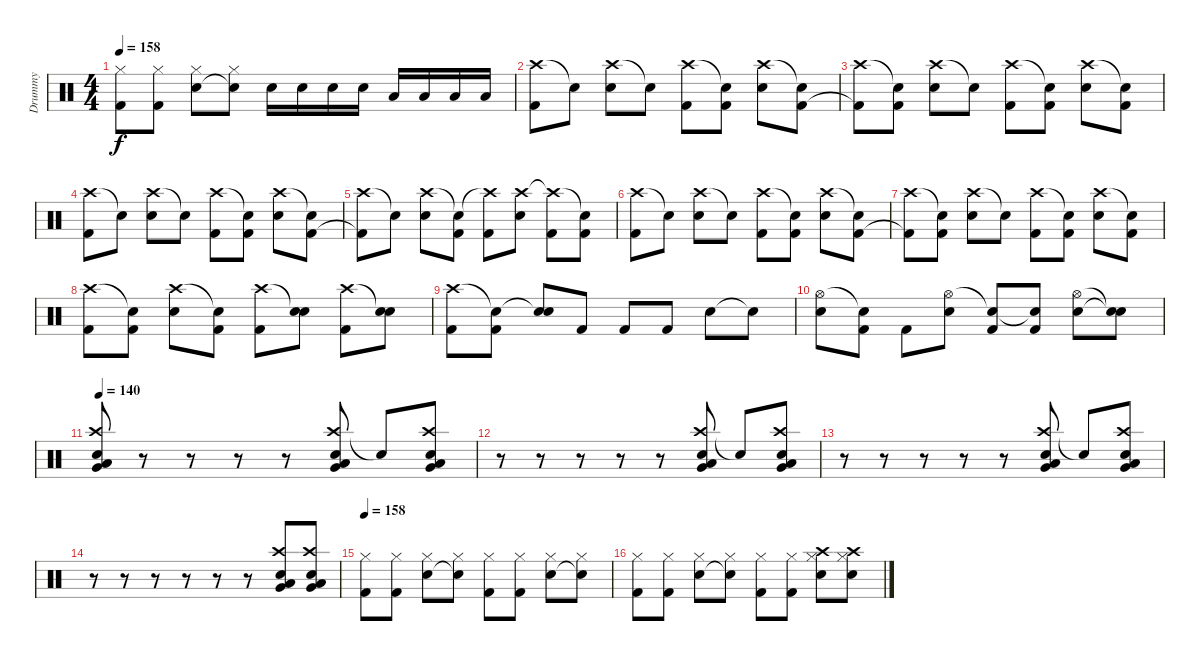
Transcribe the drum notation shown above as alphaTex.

\track ("Drummy" "Drummy") {instrument percussion bank 127}
\staff {score}
\articulation defaults
\ts (4 4)
\tempo 158
\clef neutral
\ks c
("Hi-Hat (closed)" "Kick (hit) 2").8{dy f} ("Hi-Hat (closed)" "Kick (hit) 2").8 ("Hi-Hat (closed)" "Electric Snare (hit)").8 ("Hi-Hat (closed)" "Snare (hit)"{t}).8 "Electric Snare (hit)".16 "Electric Snare (hit)".16 "Electric Snare (hit)".16 "Electric Snare (hit)".16 "Low Tom (hit)".16 "Low Tom (hit)".16 "Low Tom (hit)".16 "Low Tom (hit)".16 |
("Crash high (hit)" "Kick (hit) 2").8 "Snare (hit)"{t}.8 ("Crash high (hit)" "Electric Snare (hit)").8 "Snare (hit)"{t}.8 ("Crash high (hit)" "Kick (hit) 2").8 ("Snare (hit)"{t} "Kick (hit) 2").8 ("Crash high (hit)" "Electric Snare (hit)").8 ("Snare (hit)"{t} "Kick (hit) 2").8 |
("Crash high (hit)" "Kick (hit) 2"{t}).8 ("Snare (hit)"{t} "Kick (hit) 2").8 ("Crash high (hit)" "Electric Snare (hit)").8 "Snare (hit)"{t}.8 ("Crash high (hit)" "Kick (hit) 2").8 ("Snare (hit)"{t} "Kick (hit) 2").8 ("Crash high (hit)" "Electric Snare (hit)").8 ("Snare (hit)"{t} "Kick (hit) 2").8 |
("Crash high (hit)" "Kick (hit) 2").8 "Snare (hit)"{t}.8 ("Crash high (hit)" "Electric Snare (hit)").8 "Snare (hit)"{t}.8 ("Crash high (hit)" "Kick (hit) 2").8 ("Snare (hit)"{t} "Kick (hit) 2").8 ("Crash high (hit)" "Electric Snare (hit)").8 ("Snare (hit)"{t} "Kick (hit) 2").8 |
("Crash high (hit)" "Kick (hit) 2"{t}).8 "Snare (hit)"{t}.8 ("Crash high (hit)" "Electric Snare (hit)").8 ("Snare (hit)"{t} "Kick (hit) 2").8 ("Crash high (hit)"{t} "Kick (hit) 2").8 ("Crash high (hit)" "Electric Snare (hit)").8 ("Crash high (hit)"{t} "Kick (hit) 2").8 ("Snare (hit)"{t} "Kick (hit) 2").8 |
("Crash high (hit)" "Kick (hit) 2").8 "Snare (hit)"{t}.8 ("Crash high (hit)" "Electric Snare (hit)").8 "Snare (hit)"{t}.8 ("Crash high (hit)" "Kick (hit) 2").8 ("Snare (hit)"{t} "Kick (hit) 2").8 ("Crash high (hit)" "Electric Snare (hit)").8 ("Snare (hit)"{t} "Kick (hit) 2").8 |
("Crash high (hit)" "Kick (hit) 2"{t}).8 ("Snare (hit)"{t} "Kick (hit) 2").8 ("Crash high (hit)" "Electric Snare (hit)").8 "Snare (hit)"{t}.8 ("Crash high (hit)" "Kick (hit) 2").8 ("Snare (hit)"{t} "Kick (hit) 2").8 ("Crash high (hit)" "Electric Snare (hit)").8 ("Snare (hit)"{t} "Kick (hit) 2").8 |
("Crash high (hit)" "Kick (hit) 2").8 ("Snare (hit)"{t} "Kick (hit) 2").8 ("Crash high (hit)" "Electric Snare (hit)").8 ("Snare (hit)"{t} "Kick (hit) 2").8 ("Crash high (hit)" "Kick (hit) 2").8 ("Snare (hit)"{t} "Electric Snare (hit)").8 ("Crash high (hit)" "Kick (hit) 2").8 ("Snare (hit)"{t} "Electric Snare (hit)").8 |
("Crash high (hit)" "Kick (hit) 2").8 ("Snare (hit)"{t} "Kick (hit) 2").8 ("Snare (hit)"{t} "Electric Snare (hit)").8 "Kick (hit) 2".8 "Kick (hit) 2".8 "Kick (hit) 2".8 "Electric Snare (hit)".8 "Snare (hit)"{t}.8 |
("Hi-Hat (open)" "Electric Snare (hit)").8 ("Snare (hit)"{t} "Kick (hit) 2").8 "Kick (hit) 2".8 ("Hi-Hat (open)" "Electric Snare (hit)").8 ("Snare (hit)"{t} "Kick (hit) 2").8 ("Snare (hit)"{t} "Kick (hit) 2").8 ("Hi-Hat (open)" "Electric Snare (hit)").8 ("Snare (hit)"{t} "Snare (hit)"{t}).8 |
\tempo 140
("Crash high (hit)" "Electric Snare (hit)" "Low Tom (hit)" "Very Low Tom (hit)").8 r.8 r.8 r.8 r.8 ("Crash high (hit)" "Electric Snare (hit)" "Low Tom (hit)" "Very Low Tom (hit)").8 "Snare (hit)"{t}.8 ("Crash high (hit)" "Electric Snare (hit)" "Low Tom (hit)" "Very Low Tom (hit)").8 |
r.8 r.8 r.8 r.8 r.8 ("Crash high (hit)" "Electric Snare (hit)" "Low Tom (hit)" "Very Low Tom (hit)").8 "Snare (hit)"{t}.8 ("Crash high (hit)" "Electric Snare (hit)" "Low Tom (hit)" "Very Low Tom (hit)").8 |
r.8 r.8 r.8 r.8 r.8 ("Crash high (hit)" "Electric Snare (hit)" "Low Tom (hit)" "Very Low Tom (hit)").8 "Snare (hit)"{t}.8 ("Crash high (hit)" "Electric Snare (hit)" "Low Tom (hit)" "Very Low Tom (hit)").8 |
r.8 r.8 r.8 r.8 r.8 r.8 ("Crash high (hit)" "Electric Snare (hit)" "Low Tom (hit)" "Very Low Tom (hit)").8 ("Crash high (hit)" "Electric Snare (hit)" "Low Tom (hit)" "Very Low Tom (hit)").8 |
\tempo 158
("Hi-Hat (closed)" "Kick (hit) 2").8 ("Hi-Hat (closed)" "Kick (hit) 2").8 ("Hi-Hat (closed)" "Electric Snare (hit)").8 ("Hi-Hat (closed)" "Snare (hit)"{t}).8 ("Hi-Hat (closed)" "Kick (hit) 2").8 ("Hi-Hat (closed)" "Kick (hit) 2").8 ("Hi-Hat (closed)" "Electric Snare (hit)").8 ("Hi-Hat (closed)" "Snare (hit)"{t}).8 |
("Hi-Hat (closed)" "Kick (hit) 2").8 ("Hi-Hat (closed)" "Kick (hit) 2").8 ("Hi-Hat (closed)" "Electric Snare (hit)").8 ("Hi-Hat (closed)" "Snare (hit)"{t}).8 ("Hi-Hat (closed)" "Kick (hit) 2").8 ("Hi-Hat (closed)" "Kick (hit) 2").8 ("Hi-Hat (closed)" "Crash high (hit)" "Electric Snare (hit)").8 ("Hi-Hat (closed)" "Crash high (hit)" "Electric Snare (hit)").8
